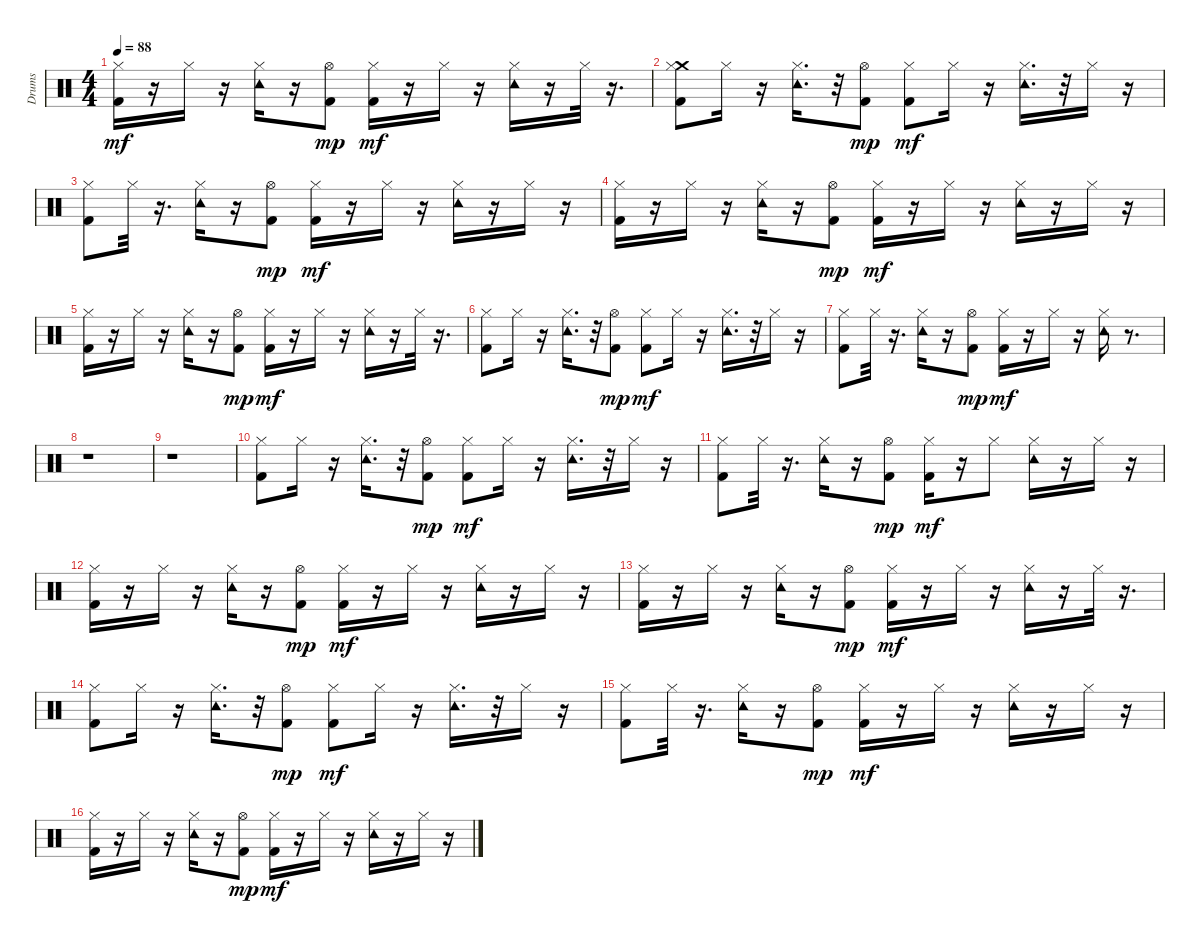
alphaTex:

\track ("Drums" "Drums") {instrument percussion}
\staff {score}
\articulation defaults
\ts (4 4)
\tempo 88
\clef neutral
\ks c
("Kick (hit) 2" "Hi-Hat (closed)").16{dy mf} r.16 "Hi-Hat (closed)".16 r.16 ("Tambourine (hit)" "Hi-Hat (closed)").16 r.16 ("Kick (hit) 2" "Hi-Hat (open)").8{dy mp} ("Kick (hit) 2" "Hi-Hat (closed)").16{dy mf} r.16 "Hi-Hat (closed)".16 r.16 ("Tambourine (hit)" "Hi-Hat (closed)").16 r.16 "Hi-Hat (closed)".32 r.16{d} |
("Crash medium (hit)" "Kick (hit) 2" "Hi-Hat (closed)").8 "Hi-Hat (closed)".16 r.16 ("Tambourine (hit)" "Hi-Hat (closed)").16{d} r.32 ("Kick (hit) 2" "Hi-Hat (open)").8{dy mp} ("Kick (hit) 2" "Hi-Hat (closed)").8{dy mf} "Hi-Hat (closed)".16 r.16 ("Tambourine (hit)" "Hi-Hat (closed)").16{d} r.32 "Hi-Hat (closed)".16 r.16 |
("Kick (hit) 2" "Hi-Hat (closed)").8 "Hi-Hat (closed)".32 r.16{d} ("Tambourine (hit)" "Hi-Hat (closed)").16 r.16 ("Kick (hit) 2" "Hi-Hat (open)").8{dy mp} ("Kick (hit) 2" "Hi-Hat (closed)").16{dy mf} r.16 "Hi-Hat (closed)".16 r.16 ("Tambourine (hit)" "Hi-Hat (closed)").16 r.16 "Hi-Hat (closed)".16 r.16 |
("Kick (hit) 2" "Hi-Hat (closed)").16 r.16 "Hi-Hat (closed)".16 r.16 ("Tambourine (hit)" "Hi-Hat (closed)").16 r.16 ("Kick (hit) 2" "Hi-Hat (open)").8{dy mp} ("Kick (hit) 2" "Hi-Hat (closed)").16{dy mf} r.16 "Hi-Hat (closed)".16 r.16 ("Tambourine (hit)" "Hi-Hat (closed)").16 r.16 "Hi-Hat (closed)".16 r.16 |
("Kick (hit) 2" "Hi-Hat (closed)").16 r.16 "Hi-Hat (closed)".16 r.16 ("Tambourine (hit)" "Hi-Hat (closed)").16 r.16 ("Kick (hit) 2" "Hi-Hat (open)").8{dy mp} ("Kick (hit) 2" "Hi-Hat (closed)").16{dy mf} r.16 "Hi-Hat (closed)".16 r.16 ("Tambourine (hit)" "Hi-Hat (closed)").16 r.16 "Hi-Hat (closed)".32 r.16{d} |
("Kick (hit) 2" "Hi-Hat (closed)").8 "Hi-Hat (closed)".16 r.16 ("Tambourine (hit)" "Hi-Hat (closed)").16{d} r.32 ("Kick (hit) 2" "Hi-Hat (open)").8{dy mp} ("Kick (hit) 2" "Hi-Hat (closed)").8{dy mf} "Hi-Hat (closed)".16 r.16 ("Tambourine (hit)" "Hi-Hat (closed)").16{d} r.32 "Hi-Hat (closed)".16 r.16 |
("Kick (hit) 2" "Hi-Hat (closed)").8 "Hi-Hat (closed)".32 r.16{d} ("Tambourine (hit)" "Hi-Hat (closed)").16 r.16 ("Kick (hit) 2" "Hi-Hat (open)").8{dy mp} ("Kick (hit) 2" "Hi-Hat (closed)").16{dy mf} r.16 "Hi-Hat (closed)".16 r.16 ("Tambourine (hit)" "Hi-Hat (closed)").16 r.8{d} |
r.1 |
r.1 |
("Kick (hit) 2" "Hi-Hat (closed)").8 "Hi-Hat (closed)".16 r.16 ("Tambourine (hit)" "Hi-Hat (closed)").16{d} r.32 ("Kick (hit) 2" "Hi-Hat (open)").8{dy mp} ("Kick (hit) 2" "Hi-Hat (closed)").8{dy mf} "Hi-Hat (closed)".16 r.16 ("Tambourine (hit)" "Hi-Hat (closed)").16{d} r.32 "Hi-Hat (closed)".16 r.16 |
("Kick (hit) 2" "Hi-Hat (closed)").8 "Hi-Hat (closed)".32 r.16{d} ("Tambourine (hit)" "Hi-Hat (closed)").16 r.16 ("Kick (hit) 2" "Hi-Hat (open)").8{dy mp} ("Kick (hit) 2" "Hi-Hat (closed)").16{dy mf} r.16 "Hi-Hat (closed)".8 ("Tambourine (hit)" "Hi-Hat (closed)").16 r.16 "Hi-Hat (closed)".16 r.16 |
("Kick (hit) 2" "Hi-Hat (closed)").16 r.16 "Hi-Hat (closed)".16 r.16 ("Tambourine (hit)" "Hi-Hat (closed)").16 r.16 ("Kick (hit) 2" "Hi-Hat (open)").8{dy mp} ("Kick (hit) 2" "Hi-Hat (closed)").16{dy mf} r.16 "Hi-Hat (closed)".16 r.16 ("Tambourine (hit)" "Hi-Hat (closed)").16 r.16 "Hi-Hat (closed)".16 r.16 |
("Kick (hit) 2" "Hi-Hat (closed)").16 r.16 "Hi-Hat (closed)".16 r.16 ("Tambourine (hit)" "Hi-Hat (closed)").16 r.16 ("Kick (hit) 2" "Hi-Hat (open)").8{dy mp} ("Kick (hit) 2" "Hi-Hat (closed)").16{dy mf} r.16 "Hi-Hat (closed)".16 r.16 ("Tambourine (hit)" "Hi-Hat (closed)").16 r.16 "Hi-Hat (closed)".32 r.16{d} |
("Kick (hit) 2" "Hi-Hat (closed)").8 "Hi-Hat (closed)".16 r.16 ("Tambourine (hit)" "Hi-Hat (closed)").16{d} r.32 ("Kick (hit) 2" "Hi-Hat (open)").8{dy mp} ("Kick (hit) 2" "Hi-Hat (closed)").8{dy mf} "Hi-Hat (closed)".16 r.16 ("Tambourine (hit)" "Hi-Hat (closed)").16{d} r.32 "Hi-Hat (closed)".16 r.16 |
("Kick (hit) 2" "Hi-Hat (closed)").8 "Hi-Hat (closed)".32 r.16{d} ("Tambourine (hit)" "Hi-Hat (closed)").16 r.16 ("Kick (hit) 2" "Hi-Hat (open)").8{dy mp} ("Kick (hit) 2" "Hi-Hat (closed)").16{dy mf} r.16 "Hi-Hat (closed)".16 r.16 ("Tambourine (hit)" "Hi-Hat (closed)").16 r.16 "Hi-Hat (closed)".16 r.16 |
("Kick (hit) 2" "Hi-Hat (closed)").16 r.16 "Hi-Hat (closed)".16 r.16 ("Tambourine (hit)" "Hi-Hat (closed)").16 r.16 ("Kick (hit) 2" "Hi-Hat (open)").8{dy mp} ("Kick (hit) 2" "Hi-Hat (closed)").16{dy mf} r.16 "Hi-Hat (closed)".16 r.16 ("Tambourine (hit)" "Hi-Hat (closed)").16 r.16 "Hi-Hat (closed)".16 r.16
